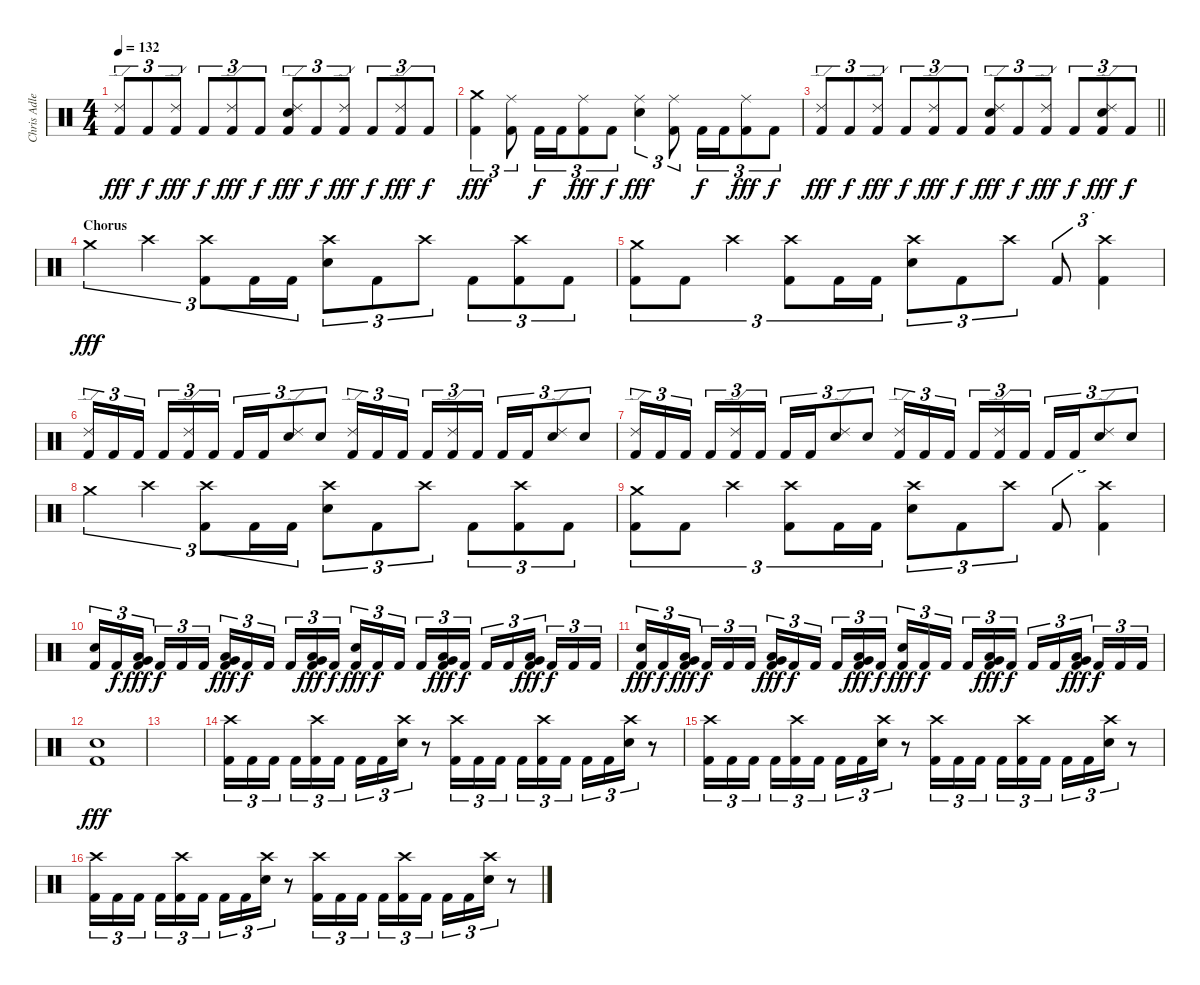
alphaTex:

\track ("Chris Adler" "Chris Adle") {instrument percussion}
\staff {score}
\articulation defaults
\ts (4 4)
\tempo 132
\clef neutral
\ks c
("Ride (edge) 2" "Kick (hit) 2").8{tu (3 2) dy fff} "Kick (hit) 2".8{tu (3 2) dy f} ("Ride (edge) 2" "Kick (hit) 2").8{tu (3 2) dy fff} "Kick (hit) 2".8{tu (3 2) dy f} ("Ride (edge) 2" "Kick (hit) 2").8{tu (3 2) dy fff} "Kick (hit) 2".8{tu (3 2) dy f} ("Ride (edge) 2" "Electric Snare (hit)" "Kick (hit) 2").8{tu (3 2) dy fff} "Kick (hit) 2".8{tu (3 2) dy f} ("Ride (edge) 2" "Kick (hit) 2").8{tu (3 2) dy fff} "Kick (hit) 2".8{tu (3 2) dy f} ("Ride (edge) 2" "Kick (hit) 2").8{tu (3 2) dy fff} "Kick (hit) 2".8{tu (3 2) dy f} |
("Crash medium (hit)" "Kick (hit) 2").4{tu (3 2) dy fff} ("Ride (middle)" "Kick (hit) 2").8{tu (3 2)} "Kick (hit) 2".16{tu (3 2) dy f} "Kick (hit) 2".16{tu (3 2)} ("Ride (middle)" "Kick (hit) 2").8{tu (3 2) dy fff} "Kick (hit) 2".8{tu (3 2) dy f} ("Ride (middle)" "Electric Snare (hit)").4{tu (3 2) dy fff} ("Ride (middle)" "Kick (hit) 2").8{tu (3 2)} "Kick (hit) 2".16{tu (3 2) dy f} "Kick (hit) 2".16{tu (3 2)} ("Ride (middle)" "Kick (hit) 2").8{tu (3 2) dy fff} "Kick (hit) 2".8{tu (3 2) dy f} |
\barLineRight lightlight
("Ride (edge) 2" "Kick (hit) 2").8{tu (3 2) dy fff} "Kick (hit) 2".8{tu (3 2) dy f} ("Ride (edge) 2" "Kick (hit) 2").8{tu (3 2) dy fff} "Kick (hit) 2".8{tu (3 2) dy f} ("Ride (edge) 2" "Kick (hit) 2").8{tu (3 2) dy fff} "Kick (hit) 2".8{tu (3 2) dy f} ("Ride (edge) 2" "Electric Snare (hit)" "Kick (hit) 2").8{tu (3 2) dy fff} "Kick (hit) 2".8{tu (3 2) dy f} ("Ride (edge) 2" "Kick (hit) 2").8{tu (3 2) dy fff} "Kick (hit) 2".8{tu (3 2) dy f} ("Ride (edge) 2" "Electric Snare (hit)" "Kick (hit) 2").8{tu (3 2) dy fff} "Kick (hit) 2".8{tu (3 2) dy f} |
\section ("" "Chorus")
"Crash medium (hit)".4{tu (3 2) dy fff} "Crash high (hit)".4{tu (3 2)} ("Crash high (hit)" "Kick (hit) 2").8{tu (3 2)} "Kick (hit) 2".16{tu (3 2)} "Kick (hit) 2".16{tu (3 2)} ("Crash high (hit)" "Electric Snare (hit)").8{tu (3 2)} "Kick (hit) 2".8{tu (3 2)} "Crash high (hit)".8{tu (3 2)} "Kick (hit) 2".8{tu (3 2)} ("Crash high (hit)" "Kick (hit) 2").8{tu (3 2)} "Kick (hit) 2".8{tu (3 2)} |
("Crash medium (hit)" "Kick (hit) 2").8{tu (3 2)} "Kick (hit) 2".8{tu (3 2)} "Crash high (hit)".4{tu (3 2)} ("Crash high (hit)" "Kick (hit) 2").8{tu (3 2)} "Kick (hit) 2".16{tu (3 2)} "Kick (hit) 2".16{tu (3 2)} ("Crash high (hit)" "Electric Snare (hit)").8{tu (3 2)} "Kick (hit) 2".8{tu (3 2)} "Crash high (hit)".8{tu (3 2)} "Kick (hit) 2".8{tu (3 2)} ("Crash high (hit)" "Kick (hit) 2").4{tu (3 2)} |
("Ride (edge) 2" "Kick (hit) 2").16{tu (3 2)} "Kick (hit) 2".16{tu (3 2)} "Kick (hit) 2".16{tu (3 2) beam splitsecondary} "Kick (hit) 2".16{tu (3 2)} ("Ride (edge) 2" "Kick (hit) 2").16{tu (3 2)} "Kick (hit) 2".16{tu (3 2)} "Kick (hit) 2".16{tu (3 2)} "Kick (hit) 2".16{tu (3 2)} ("Ride (edge) 2" "Electric Snare (hit)").8{tu (3 2)} "Electric Snare (hit)".8{tu (3 2)} ("Ride (edge) 2" "Kick (hit) 2").16{tu (3 2)} "Kick (hit) 2".16{tu (3 2)} "Kick (hit) 2".16{tu (3 2) beam splitsecondary} "Kick (hit) 2".16{tu (3 2)} ("Ride (edge) 2" "Kick (hit) 2").16{tu (3 2)} "Kick (hit) 2".16{tu (3 2)} "Kick (hit) 2".16{tu (3 2)} "Kick (hit) 2".16{tu (3 2)} ("Ride (edge) 2" "Electric Snare (hit)").8{tu (3 2)} "Electric Snare (hit)".8{tu (3 2)} |
("Ride (edge) 2" "Kick (hit) 2").16{tu (3 2)} "Kick (hit) 2".16{tu (3 2)} "Kick (hit) 2".16{tu (3 2) beam splitsecondary} "Kick (hit) 2".16{tu (3 2)} ("Ride (edge) 2" "Kick (hit) 2").16{tu (3 2)} "Kick (hit) 2".16{tu (3 2)} "Kick (hit) 2".16{tu (3 2)} "Kick (hit) 2".16{tu (3 2)} ("Ride (edge) 2" "Electric Snare (hit)").8{tu (3 2)} "Electric Snare (hit)".8{tu (3 2)} ("Ride (edge) 2" "Kick (hit) 2").16{tu (3 2)} "Kick (hit) 2".16{tu (3 2)} "Kick (hit) 2".16{tu (3 2) beam splitsecondary} "Kick (hit) 2".16{tu (3 2)} ("Ride (edge) 2" "Kick (hit) 2").16{tu (3 2)} "Kick (hit) 2".16{tu (3 2)} "Kick (hit) 2".16{tu (3 2)} "Kick (hit) 2".16{tu (3 2)} ("Ride (edge) 2" "Electric Snare (hit)").8{tu (3 2)} "Electric Snare (hit)".8{tu (3 2)} |
"Crash medium (hit)".4{tu (3 2)} "Crash high (hit)".4{tu (3 2)} ("Crash high (hit)" "Kick (hit) 2").8{tu (3 2)} "Kick (hit) 2".16{tu (3 2)} "Kick (hit) 2".16{tu (3 2)} ("Crash high (hit)" "Electric Snare (hit)").8{tu (3 2)} "Kick (hit) 2".8{tu (3 2)} "Crash high (hit)".8{tu (3 2)} "Kick (hit) 2".8{tu (3 2)} ("Crash high (hit)" "Kick (hit) 2").8{tu (3 2)} "Kick (hit) 2".8{tu (3 2)} |
("Crash medium (hit)" "Kick (hit) 2").8{tu (3 2)} "Kick (hit) 2".8{tu (3 2)} "Crash high (hit)".4{tu (3 2)} ("Crash high (hit)" "Kick (hit) 2").8{tu (3 2)} "Kick (hit) 2".16{tu (3 2)} "Kick (hit) 2".16{tu (3 2)} ("Crash high (hit)" "Electric Snare (hit)").8{tu (3 2)} "Kick (hit) 2".8{tu (3 2)} "Crash high (hit)".8{tu (3 2)} "Kick (hit) 2".8{tu (3 2)} ("Crash high (hit)" "Kick (hit) 2").4{tu (3 2)} |
("Electric Snare (hit)" "Kick (hit) 2").16{tu (3 2)} "Kick (hit) 2".16{tu (3 2) dy f} ("Low Floor Tom (hit)" "Very Low Tom (hit)" "Kick (hit) 2").16{tu (3 2) dy fff beam splitsecondary} "Kick (hit) 2".16{tu (3 2) dy f} "Kick (hit) 2".16{tu (3 2)} "Kick (hit) 2".16{tu (3 2)} ("Low Floor Tom (hit)" "Very Low Tom (hit)" "Kick (hit) 2").16{tu (3 2) dy fff} "Kick (hit) 2".16{tu (3 2) dy f} "Kick (hit) 2".16{tu (3 2) beam splitsecondary} "Kick (hit) 2".16{tu (3 2)} ("Low Floor Tom (hit)" "Very Low Tom (hit)" "Kick (hit) 2").16{tu (3 2) dy fff} "Kick (hit) 2".16{tu (3 2) dy f} ("Electric Snare (hit)" "Kick (hit) 2").16{tu (3 2) dy fff} "Kick (hit) 2".16{tu (3 2) dy f} "Kick (hit) 2".16{tu (3 2) beam splitsecondary} "Kick (hit) 2".16{tu (3 2)} ("Low Floor Tom (hit)" "Very Low Tom (hit)" "Kick (hit) 2").16{tu (3 2) dy fff} "Kick (hit) 2".16{tu (3 2) dy f} "Kick (hit) 2".16{tu (3 2)} "Kick (hit) 2".16{tu (3 2)} ("Low Floor Tom (hit)" "Very Low Tom (hit)" "Kick (hit) 2").16{tu (3 2) dy fff beam splitsecondary} "Kick (hit) 2".16{tu (3 2) dy f} "Kick (hit) 2".16{tu (3 2)} "Kick (hit) 2".16{tu (3 2)} |
("Electric Snare (hit)" "Kick (hit) 2").16{tu (3 2) dy fff} "Kick (hit) 2".16{tu (3 2) dy f} ("Low Floor Tom (hit)" "Very Low Tom (hit)" "Kick (hit) 2").16{tu (3 2) dy fff beam splitsecondary} "Kick (hit) 2".16{tu (3 2) dy f} "Kick (hit) 2".16{tu (3 2)} "Kick (hit) 2".16{tu (3 2)} ("Low Floor Tom (hit)" "Very Low Tom (hit)" "Kick (hit) 2").16{tu (3 2) dy fff} "Kick (hit) 2".16{tu (3 2) dy f} "Kick (hit) 2".16{tu (3 2) beam splitsecondary} "Kick (hit) 2".16{tu (3 2)} ("Low Floor Tom (hit)" "Very Low Tom (hit)" "Kick (hit) 2").16{tu (3 2) dy fff} "Kick (hit) 2".16{tu (3 2) dy f} ("Electric Snare (hit)" "Kick (hit) 2").16{tu (3 2) dy fff} "Kick (hit) 2".16{tu (3 2) dy f} "Kick (hit) 2".16{tu (3 2) beam splitsecondary} "Kick (hit) 2".16{tu (3 2)} ("Low Floor Tom (hit)" "Very Low Tom (hit)" "Kick (hit) 2").16{tu (3 2) dy fff} "Kick (hit) 2".16{tu (3 2) dy f} "Kick (hit) 2".16{tu (3 2)} "Kick (hit) 2".16{tu (3 2)} ("Low Floor Tom (hit)" "Very Low Tom (hit)" "Kick (hit) 2").16{tu (3 2) dy fff beam splitsecondary} "Kick (hit) 2".16{tu (3 2) dy f} "Kick (hit) 2".16{tu (3 2)} "Kick (hit) 2".16{tu (3 2)} |
("Electric Snare (hit)" "Kick (hit) 2").1{dy fff} |
|
("Crash high (hit)" "Kick (hit) 2").16{tu (3 2)} "Kick (hit) 2".16{tu (3 2)} "Kick (hit) 2".16{tu (3 2) beam splitsecondary} "Kick (hit) 2".16{tu (3 2)} ("Crash high (hit)" "Kick (hit) 2").16{tu (3 2)} "Kick (hit) 2".16{tu (3 2)} "Kick (hit) 2".16{tu (3 2)} "Kick (hit) 2".16{tu (3 2)} ("Crash high (hit)" "Electric Snare (hit)").16{tu (3 2)} r.8 ("Crash high (hit)" "Kick (hit) 2").16{tu (3 2)} "Kick (hit) 2".16{tu (3 2)} "Kick (hit) 2".16{tu (3 2) beam splitsecondary} "Kick (hit) 2".16{tu (3 2)} ("Crash high (hit)" "Kick (hit) 2").16{tu (3 2)} "Kick (hit) 2".16{tu (3 2)} "Kick (hit) 2".16{tu (3 2)} "Kick (hit) 2".16{tu (3 2)} ("Crash high (hit)" "Electric Snare (hit)").16{tu (3 2)} r.8 |
("Crash high (hit)" "Kick (hit) 2").16{tu (3 2)} "Kick (hit) 2".16{tu (3 2)} "Kick (hit) 2".16{tu (3 2) beam splitsecondary} "Kick (hit) 2".16{tu (3 2)} ("Crash high (hit)" "Kick (hit) 2").16{tu (3 2)} "Kick (hit) 2".16{tu (3 2)} "Kick (hit) 2".16{tu (3 2)} "Kick (hit) 2".16{tu (3 2)} ("Crash high (hit)" "Electric Snare (hit)").16{tu (3 2)} r.8 ("Crash high (hit)" "Kick (hit) 2").16{tu (3 2)} "Kick (hit) 2".16{tu (3 2)} "Kick (hit) 2".16{tu (3 2) beam splitsecondary} "Kick (hit) 2".16{tu (3 2)} ("Crash high (hit)" "Kick (hit) 2").16{tu (3 2)} "Kick (hit) 2".16{tu (3 2)} "Kick (hit) 2".16{tu (3 2)} "Kick (hit) 2".16{tu (3 2)} ("Crash high (hit)" "Electric Snare (hit)").16{tu (3 2)} r.8 |
("Crash high (hit)" "Kick (hit) 2").16{tu (3 2)} "Kick (hit) 2".16{tu (3 2)} "Kick (hit) 2".16{tu (3 2) beam splitsecondary} "Kick (hit) 2".16{tu (3 2)} ("Crash high (hit)" "Kick (hit) 2").16{tu (3 2)} "Kick (hit) 2".16{tu (3 2)} "Kick (hit) 2".16{tu (3 2)} "Kick (hit) 2".16{tu (3 2)} ("Crash high (hit)" "Electric Snare (hit)").16{tu (3 2)} r.8 ("Crash high (hit)" "Kick (hit) 2").16{tu (3 2)} "Kick (hit) 2".16{tu (3 2)} "Kick (hit) 2".16{tu (3 2) beam splitsecondary} "Kick (hit) 2".16{tu (3 2)} ("Crash high (hit)" "Kick (hit) 2").16{tu (3 2)} "Kick (hit) 2".16{tu (3 2)} "Kick (hit) 2".16{tu (3 2)} "Kick (hit) 2".16{tu (3 2)} ("Crash high (hit)" "Electric Snare (hit)").16{tu (3 2)} r.8
